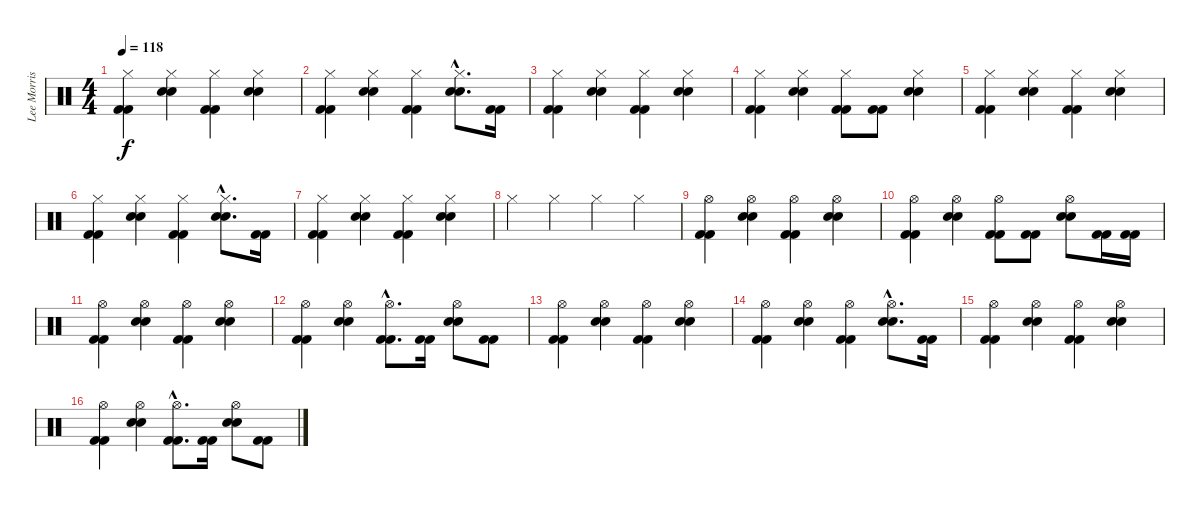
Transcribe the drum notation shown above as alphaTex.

\track ("Lee Morris" "Lee Morris") {instrument percussion}
\staff {score}
\articulation defaults
\ts (4 4)
\tempo 118
\clef neutral
\ks c
("Hi-Hat (closed)" "Kick (hit) 2" "Kick (hit) 2").4{dy f} ("Hi-Hat (closed)" "Snare (hit) 2" "Snare (hit) 2").4 ("Hi-Hat (closed)" "Kick (hit) 2" "Kick (hit) 2").4 ("Hi-Hat (closed)" "Snare (hit) 2" "Snare (hit) 2").4 |
("Hi-Hat (closed)" "Kick (hit) 2" "Kick (hit) 2").4 ("Hi-Hat (closed)" "Snare (hit) 2" "Snare (hit) 2").4 ("Hi-Hat (closed)" "Kick (hit) 2" "Kick (hit) 2").4 ("Hi-Hat (closed)"{hac} "Snare (hit) 2"{hac} "Snare (hit) 2"{hac}).8{d} ("Kick (hit) 2" "Kick (hit) 2").16 |
("Hi-Hat (closed)" "Kick (hit) 2" "Kick (hit) 2").4 ("Hi-Hat (closed)" "Snare (hit) 2" "Snare (hit) 2").4 ("Hi-Hat (closed)" "Kick (hit) 2" "Kick (hit) 2").4 ("Hi-Hat (closed)" "Snare (hit) 2" "Snare (hit) 2").4 |
("Hi-Hat (closed)" "Kick (hit) 2" "Kick (hit) 2").4 ("Hi-Hat (closed)" "Snare (hit) 2" "Snare (hit) 2").4 ("Hi-Hat (closed)" "Kick (hit) 2" "Kick (hit) 2").8 ("Kick (hit) 2" "Kick (hit) 2").8 ("Hi-Hat (closed)" "Snare (hit) 2" "Snare (hit) 2").4 |
("Hi-Hat (closed)" "Kick (hit) 2" "Kick (hit) 2").4 ("Hi-Hat (closed)" "Snare (hit) 2" "Snare (hit) 2").4 ("Hi-Hat (closed)" "Kick (hit) 2" "Kick (hit) 2").4 ("Hi-Hat (closed)" "Snare (hit) 2" "Snare (hit) 2").4 |
("Hi-Hat (closed)" "Kick (hit) 2" "Kick (hit) 2").4 ("Hi-Hat (closed)" "Snare (hit) 2" "Snare (hit) 2").4 ("Hi-Hat (closed)" "Kick (hit) 2" "Kick (hit) 2").4 ("Hi-Hat (closed)"{hac} "Snare (hit) 2"{hac} "Snare (hit) 2"{hac}).8{d} ("Kick (hit) 2" "Kick (hit) 2").16 |
("Hi-Hat (closed)" "Kick (hit) 2" "Kick (hit) 2").4 ("Hi-Hat (closed)" "Snare (hit) 2" "Snare (hit) 2").4 ("Hi-Hat (closed)" "Kick (hit) 2" "Kick (hit) 2").4 ("Hi-Hat (closed)" "Snare (hit) 2" "Snare (hit) 2").4 |
"Hi-Hat (closed)".4 "Hi-Hat (closed)".4 "Hi-Hat (closed)".4 "Hi-Hat (closed)".4 |
("Hi-Hat (open)" "Kick (hit) 2" "Kick (hit) 2").4 ("Hi-Hat (open)" "Snare (hit) 2" "Snare (hit) 2").4 ("Hi-Hat (open)" "Kick (hit) 2" "Kick (hit) 2").4 ("Hi-Hat (open)" "Snare (hit) 2" "Snare (hit) 2").4 |
("Hi-Hat (open)" "Kick (hit) 2" "Kick (hit) 2").4 ("Hi-Hat (open)" "Snare (hit) 2" "Snare (hit) 2").4 ("Hi-Hat (open)" "Kick (hit) 2" "Kick (hit) 2").8 ("Kick (hit) 2" "Kick (hit) 2").8 ("Hi-Hat (open)" "Snare (hit) 2" "Snare (hit) 2").8 ("Kick (hit) 2" "Kick (hit) 2").16 ("Kick (hit) 2" "Kick (hit) 2").16 |
("Hi-Hat (open)" "Kick (hit) 2" "Kick (hit) 2").4 ("Hi-Hat (open)" "Snare (hit) 2" "Snare (hit) 2").4 ("Hi-Hat (open)" "Kick (hit) 2" "Kick (hit) 2").4 ("Hi-Hat (open)" "Snare (hit) 2" "Snare (hit) 2").4 |
("Hi-Hat (open)" "Kick (hit) 2" "Kick (hit) 2").4 ("Hi-Hat (open)" "Snare (hit) 2" "Snare (hit) 2").4 ("Hi-Hat (open)"{hac} "Kick (hit) 2"{hac} "Kick (hit) 2"{hac}).8{d} ("Kick (hit) 2" "Kick (hit) 2").16 ("Hi-Hat (open)" "Snare (hit) 2" "Snare (hit) 2").8 ("Kick (hit) 2" "Kick (hit) 2").8 |
("Hi-Hat (open)" "Kick (hit) 2" "Kick (hit) 2").4 ("Hi-Hat (open)" "Snare (hit) 2" "Snare (hit) 2").4 ("Hi-Hat (open)" "Kick (hit) 2" "Kick (hit) 2").4 ("Hi-Hat (open)" "Snare (hit) 2" "Snare (hit) 2").4 |
("Hi-Hat (open)" "Kick (hit) 2" "Kick (hit) 2").4 ("Hi-Hat (open)" "Snare (hit) 2" "Snare (hit) 2").4 ("Hi-Hat (open)" "Kick (hit) 2" "Kick (hit) 2").4 ("Hi-Hat (open)"{hac} "Snare (hit) 2"{hac} "Snare (hit) 2"{hac}).8{d} ("Kick (hit) 2" "Kick (hit) 2").16 |
("Hi-Hat (open)" "Kick (hit) 2" "Kick (hit) 2").4 ("Hi-Hat (open)" "Snare (hit) 2" "Snare (hit) 2").4 ("Hi-Hat (open)" "Kick (hit) 2" "Kick (hit) 2").4 ("Hi-Hat (open)" "Snare (hit) 2" "Snare (hit) 2").4 |
("Hi-Hat (open)" "Kick (hit) 2" "Kick (hit) 2").4 ("Hi-Hat (open)" "Snare (hit) 2" "Snare (hit) 2").4 ("Hi-Hat (open)"{hac} "Kick (hit) 2"{hac} "Kick (hit) 2"{hac}).8{d} ("Kick (hit) 2" "Kick (hit) 2").16 ("Hi-Hat (open)" "Snare (hit) 2" "Snare (hit) 2").8 ("Kick (hit) 2" "Kick (hit) 2").8
